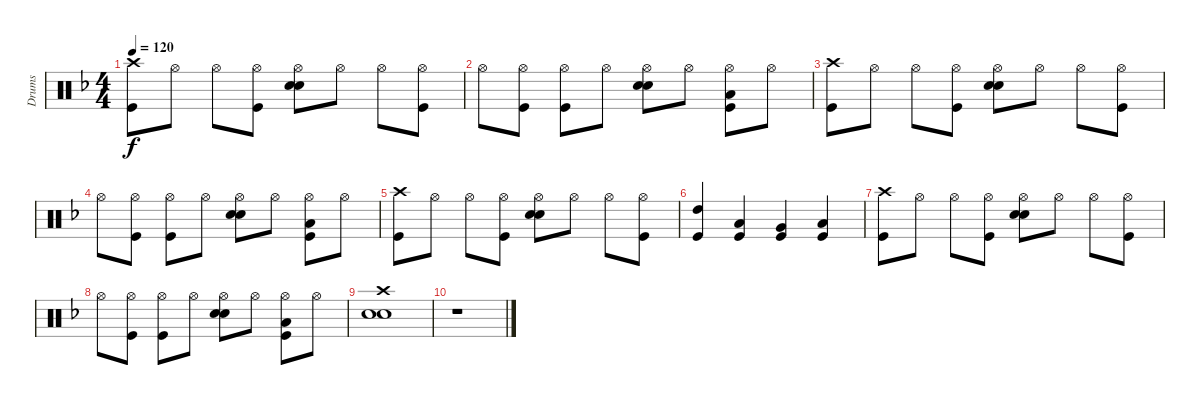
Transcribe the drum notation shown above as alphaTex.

\track ("Drums" "Drums") {instrument percussion}
\staff {score}
\articulation defaults
\ts (4 4)
\tempo 120
\clef neutral
\ks f
("Crash high (hit)" "Kick (hit)").8{dy f} "Hi-Hat (open)".8 "Hi-Hat (open)".8 ("Hi-Hat (open)" "Kick (hit)").8 ("Hi-Hat (open)" "Electric Snare (hit)" "Snare (hit) 2").8 "Hi-Hat (open)".8 "Hi-Hat (open)".8 ("Hi-Hat (open)" "Kick (hit)").8 |
"Hi-Hat (open)".8 ("Hi-Hat (open)" "Kick (hit)").8 ("Hi-Hat (open)" "Kick (hit)").8 "Hi-Hat (open)".8 ("Hi-Hat (open)" "Electric Snare (hit)" "Snare (hit) 2").8 "Hi-Hat (open)".8 ("Hi-Hat (open)" "Low Floor Tom (hit)" "Kick (hit)").8 "Hi-Hat (open)".8 |
("Crash high (hit)" "Kick (hit)").8 "Hi-Hat (open)".8 "Hi-Hat (open)".8 ("Hi-Hat (open)" "Kick (hit)").8 ("Hi-Hat (open)" "Electric Snare (hit)" "Snare (hit) 2").8 "Hi-Hat (open)".8 "Hi-Hat (open)".8 ("Hi-Hat (open)" "Kick (hit)").8 |
"Hi-Hat (open)".8 ("Hi-Hat (open)" "Kick (hit)").8 ("Hi-Hat (open)" "Kick (hit)").8 "Hi-Hat (open)".8 ("Hi-Hat (open)" "Electric Snare (hit)" "Snare (hit) 2").8 "Hi-Hat (open)".8 ("Hi-Hat (open)" "Low Floor Tom (hit)" "Kick (hit)").8 "Hi-Hat (open)".8 |
("Crash high (hit)" "Kick (hit)").8 "Hi-Hat (open)".8 "Hi-Hat (open)".8 ("Hi-Hat (open)" "Kick (hit)").8 ("Hi-Hat (open)" "Electric Snare (hit)" "Snare (hit) 2").8 "Hi-Hat (open)".8 "Hi-Hat (open)".8 ("Hi-Hat (open)" "Kick (hit)").8 |
("High Tom (hit)" "Kick (hit)").4 ("Low Tom (hit)" "Kick (hit)").4 ("Very Low Tom (hit)" "Kick (hit)").4 ("Low Floor Tom (hit)" "Kick (hit)").4 |
("Crash high (hit)" "Kick (hit)").8 "Hi-Hat (open)".8 "Hi-Hat (open)".8 ("Hi-Hat (open)" "Kick (hit)").8 ("Hi-Hat (open)" "Electric Snare (hit)" "Snare (hit) 2").8 "Hi-Hat (open)".8 "Hi-Hat (open)".8 ("Hi-Hat (open)" "Kick (hit)").8 |
"Hi-Hat (open)".8 ("Hi-Hat (open)" "Kick (hit)").8 ("Hi-Hat (open)" "Kick (hit)").8 "Hi-Hat (open)".8 ("Hi-Hat (open)" "Electric Snare (hit)" "Snare (hit) 2").8 "Hi-Hat (open)".8 ("Hi-Hat (open)" "Low Floor Tom (hit)" "Kick (hit)").8 "Hi-Hat (open)".8 |
("Crash high (hit)" "Electric Snare (hit)" "Snare (hit) 2").1 |
r.1
